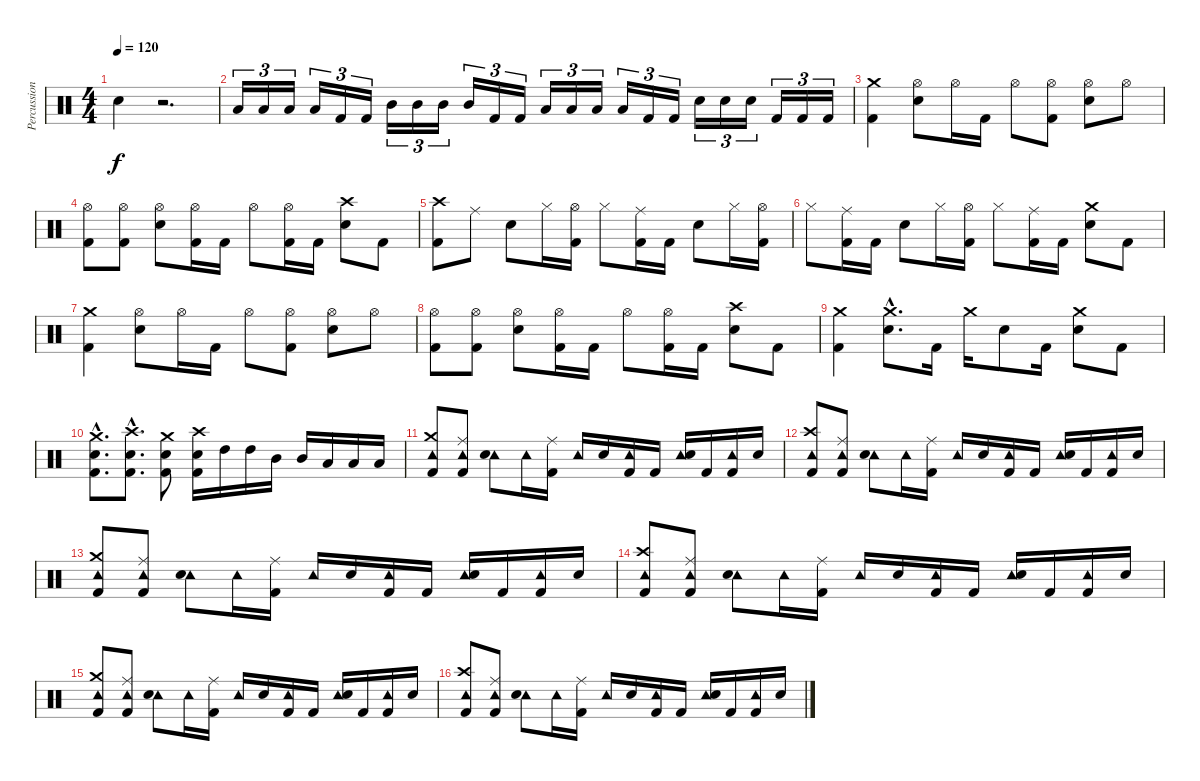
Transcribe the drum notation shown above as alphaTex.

\track ("Percussion" "Percussion") {instrument percussion}
\staff {score}
\articulation defaults
\ts (4 4)
\tempo 120
\clef neutral
\ks c "Snare (hit) 2".4{dy f}
r.2{d} |
"Low Tom (hit)".16{tu (3 2)} "Low Tom (hit)".16{tu (3 2)} "Low Tom (hit)".16{tu (3 2)} "Low Tom (hit)".16{tu (3 2)} "Kick (hit) 2".16{tu (3 2)} "Kick (hit) 2".16{tu (3 2)} "Mid Tom (hit)".16{tu (3 2)} "Mid Tom (hit)".16{tu (3 2)} "Mid Tom (hit)".16{tu (3 2)} "Mid Tom (hit)".16{tu (3 2)} "Kick (hit) 2".16{tu (3 2)} "Kick (hit) 2".16{tu (3 2)} "Low Tom (hit)".16{tu (3 2)} "Low Tom (hit)".16{tu (3 2)} "Low Tom (hit)".16{tu (3 2)} "Low Tom (hit)".16{tu (3 2)} "Kick (hit) 2".16{tu (3 2)} "Kick (hit) 2".16{tu (3 2)} "Snare (hit) 2".16{tu (3 2)} "Snare (hit) 2".16{tu (3 2)} "Snare (hit) 2".16{tu (3 2)} "Kick (hit) 2".16{tu (3 2)} "Kick (hit) 2".16{tu (3 2)} "Kick (hit) 2".16{tu (3 2)} |
("Crash medium (hit)" "Kick (hit) 2").4 ("Hi-Hat (open)" "Snare (hit) 2").8 "Hi-Hat (open)".16 "Kick (hit) 2".16 "Hi-Hat (open)".8 ("Hi-Hat (open)" "Kick (hit) 2").8 ("Hi-Hat (open)" "Snare (hit) 2").8 "Hi-Hat (open)".8 |
("Hi-Hat (open)" "Kick (hit) 2").8 ("Hi-Hat (open)" "Kick (hit) 2").8 ("Hi-Hat (open)" "Snare (hit) 2").8 ("Hi-Hat (open)" "Kick (hit) 2").16 "Kick (hit) 2".16 "Hi-Hat (open)".8 ("Hi-Hat (open)" "Kick (hit) 2").16 "Kick (hit) 2".16 ("Crash high (hit)" "Snare (hit) 2").8 "Kick (hit) 2".8 |
("Crash high (hit)" "Kick (hit) 2").8 "Ride (middle)".8 "Snare (hit) 2".8 "Hi-Hat (closed)".16 ("Hi-Hat (open)" "Kick (hit) 2").16 "Hi-Hat (closed)".8 ("Ride (middle)" "Kick (hit) 2").16 "Kick (hit) 2".16 "Snare (hit) 2".8 "Hi-Hat (closed)".16 ("Hi-Hat (open)" "Kick (hit) 2").16 |
"Hi-Hat (closed)".8 ("Ride (middle)" "Kick (hit) 2").16 "Kick (hit) 2".16 "Snare (hit) 2".8 "Hi-Hat (closed)".16 ("Hi-Hat (open)" "Kick (hit) 2").16 "Hi-Hat (closed)".8 ("Ride (middle)" "Kick (hit) 2").16 "Kick (hit) 2".16 ("Crash medium (hit)" "Snare (hit) 2").8 "Kick (hit) 2".8 |
("Crash medium (hit)" "Kick (hit) 2").4 ("Hi-Hat (open)" "Snare (hit) 2").8 "Hi-Hat (open)".16 "Kick (hit) 2".16 "Hi-Hat (open)".8 ("Hi-Hat (open)" "Kick (hit) 2").8 ("Hi-Hat (open)" "Snare (hit) 2").8 "Hi-Hat (open)".8 |
("Hi-Hat (open)" "Kick (hit) 2").8 ("Hi-Hat (open)" "Kick (hit) 2").8 ("Hi-Hat (open)" "Snare (hit) 2").8 ("Hi-Hat (open)" "Kick (hit) 2").16 "Kick (hit) 2".16 "Hi-Hat (open)".8 ("Hi-Hat (open)" "Kick (hit) 2").16 "Kick (hit) 2".16 ("Crash high (hit)" "Snare (hit) 2").8 "Kick (hit) 2".8 |
("Crash medium (hit)" "Kick (hit) 2").4 ("Crash medium (hit)"{hac} "Snare (hit) 2"{hac}).8{d} "Kick (hit) 2".16 "Crash medium (hit)".16 "Snare (hit) 2".8 "Kick (hit) 2".16 ("Crash medium (hit)" "Snare (hit) 2").8 "Kick (hit) 2".8 |
("Crash medium (hit)"{hac} "Snare (hit) 2"{hac} "Kick (hit) 2"{hac}).8{d} ("Crash high (hit)"{hac} "Snare (hit) 2"{hac} "Kick (hit) 2"{hac}).8{d} ("Crash medium (hit)" "Snare (hit) 2" "Kick (hit) 2").8 ("Crash high (hit)" "Snare (hit) 2" "Kick (hit) 2").16 "High Tom (hit)".16 "High Tom (hit)".16 "Mid Tom (hit)".16 "Mid Tom (hit)".16 "Low Tom (hit)".16 "Low Tom (hit)".16 "Low Tom (hit)".16 |
("Crash medium (hit)" "Tambourine (hit)" "Kick (hit) 2").8 ("Ride (middle)" "Tambourine (hit)" "Kick (hit) 2").8 ("Tambourine (hit)" "Snare (hit) 2").8 "Tambourine (hit)".16 ("Ride (middle)" "Kick (hit) 2").16 "Tambourine (hit)".16 "Snare (hit) 2".16 ("Tambourine (hit)" "Kick (hit) 2").16 "Kick (hit) 2".16 ("Tambourine (hit)" "Snare (hit) 2").16 "Kick (hit) 2".16 ("Tambourine (hit)" "Kick (hit) 2").16 "Snare (hit) 2".16 |
("Crash high (hit)" "Tambourine (hit)" "Kick (hit) 2").8 ("Ride (middle)" "Tambourine (hit)" "Kick (hit) 2").8 ("Tambourine (hit)" "Snare (hit) 2").8 "Tambourine (hit)".16 ("Ride (middle)" "Kick (hit) 2").16 "Tambourine (hit)".16 "Snare (hit) 2".16 ("Tambourine (hit)" "Kick (hit) 2").16 "Kick (hit) 2".16 ("Tambourine (hit)" "Snare (hit) 2").16 "Kick (hit) 2".16 ("Tambourine (hit)" "Kick (hit) 2").16 "Snare (hit) 2".16 |
("Crash medium (hit)" "Tambourine (hit)" "Kick (hit) 2").8 ("Ride (middle)" "Tambourine (hit)" "Kick (hit) 2").8 ("Tambourine (hit)" "Snare (hit) 2").8 "Tambourine (hit)".16 ("Ride (middle)" "Kick (hit) 2").16 "Tambourine (hit)".16 "Snare (hit) 2".16 ("Tambourine (hit)" "Kick (hit) 2").16 "Kick (hit) 2".16 ("Tambourine (hit)" "Snare (hit) 2").16 "Kick (hit) 2".16 ("Tambourine (hit)" "Kick (hit) 2").16 "Snare (hit) 2".16 |
("Crash high (hit)" "Tambourine (hit)" "Kick (hit) 2").8 ("Ride (middle)" "Tambourine (hit)" "Kick (hit) 2").8 ("Tambourine (hit)" "Snare (hit) 2").8 "Tambourine (hit)".16 ("Ride (middle)" "Kick (hit) 2").16 "Tambourine (hit)".16 "Snare (hit) 2".16 ("Tambourine (hit)" "Kick (hit) 2").16 "Kick (hit) 2".16 ("Tambourine (hit)" "Snare (hit) 2").16 "Kick (hit) 2".16 ("Tambourine (hit)" "Kick (hit) 2").16 "Snare (hit) 2".16 |
("Crash medium (hit)" "Tambourine (hit)" "Kick (hit) 2").8 ("Ride (middle)" "Tambourine (hit)" "Kick (hit) 2").8 ("Tambourine (hit)" "Snare (hit) 2").8 "Tambourine (hit)".16 ("Ride (middle)" "Kick (hit) 2").16 "Tambourine (hit)".16 "Snare (hit) 2".16 ("Tambourine (hit)" "Kick (hit) 2").16 "Kick (hit) 2".16 ("Tambourine (hit)" "Snare (hit) 2").16 "Kick (hit) 2".16 ("Tambourine (hit)" "Kick (hit) 2").16 "Snare (hit) 2".16 |
("Crash high (hit)" "Tambourine (hit)" "Kick (hit) 2").8 ("Ride (middle)" "Tambourine (hit)" "Kick (hit) 2").8 ("Tambourine (hit)" "Snare (hit) 2").8 "Tambourine (hit)".16 ("Ride (middle)" "Kick (hit) 2").16 "Tambourine (hit)".16 "Snare (hit) 2".16 ("Tambourine (hit)" "Kick (hit) 2").16 "Kick (hit) 2".16 ("Tambourine (hit)" "Snare (hit) 2").16 "Kick (hit) 2".16 ("Tambourine (hit)" "Kick (hit) 2").16 "Snare (hit) 2".16
